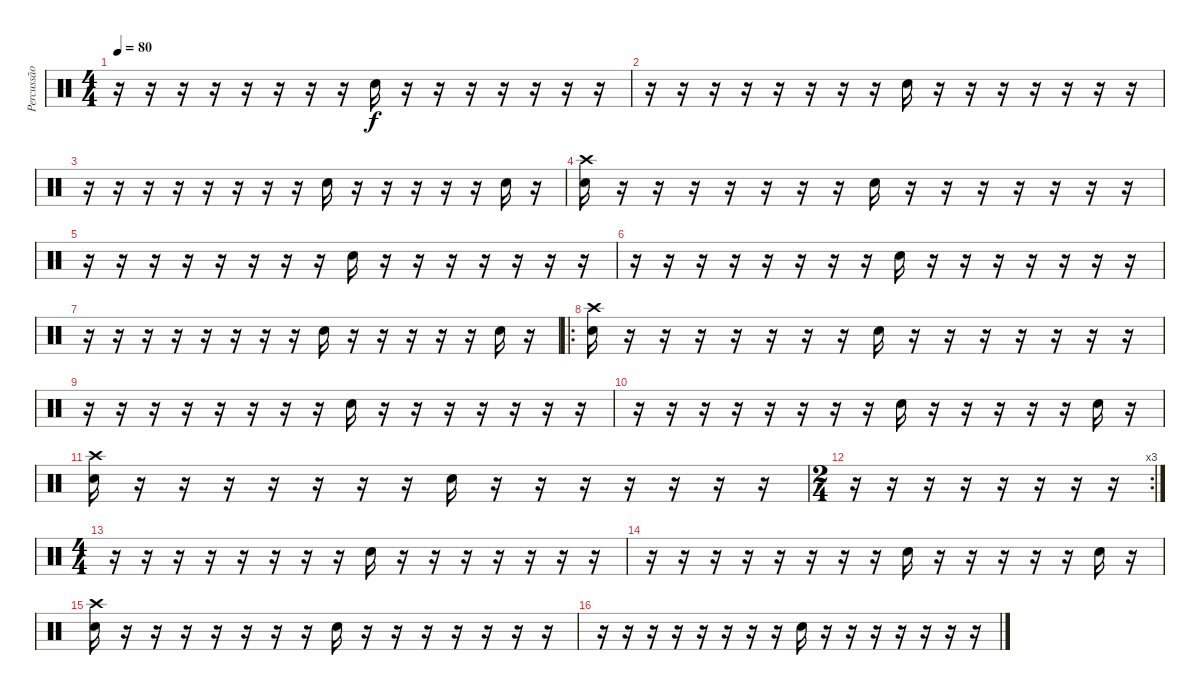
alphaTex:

\track ("Percussão" "Percussão") {instrument percussion}
\staff {score}
\articulation defaults
\ts (4 4)
\tempo 80
\clef neutral
\ks c
r.16{dy f} r.16 r.16 r.16 r.16 r.16 r.16 r.16 "Electric Snare (hit)".16 r.16 r.16 r.16 r.16 r.16 r.16 r.16 |
r.16 r.16 r.16 r.16 r.16 r.16 r.16 r.16 "Electric Snare (hit)".16 r.16 r.16 r.16 r.16 r.16 r.16 r.16 |
r.16 r.16 r.16 r.16 r.16 r.16 r.16 r.16 "Electric Snare (hit)".16 r.16 r.16 r.16 r.16 r.16 "Electric Snare (hit)".16 r.16 |
("Crash high (hit)" "Electric Snare (hit)").16 r.16 r.16 r.16 r.16 r.16 r.16 r.16 "Electric Snare (hit)".16 r.16 r.16 r.16 r.16 r.16 r.16 r.16 |
r.16 r.16 r.16 r.16 r.16 r.16 r.16 r.16 "Electric Snare (hit)".16 r.16 r.16 r.16 r.16 r.16 r.16 r.16 |
r.16 r.16 r.16 r.16 r.16 r.16 r.16 r.16 "Electric Snare (hit)".16 r.16 r.16 r.16 r.16 r.16 r.16 r.16 |
r.16 r.16 r.16 r.16 r.16 r.16 r.16 r.16 "Electric Snare (hit)".16 r.16 r.16 r.16 r.16 r.16 "Electric Snare (hit)".16 r.16 |
\ro
("Crash high (hit)" "Electric Snare (hit)").16 r.16 r.16 r.16 r.16 r.16 r.16 r.16 "Electric Snare (hit)".16 r.16 r.16 r.16 r.16 r.16 r.16 r.16 |
r.16 r.16 r.16 r.16 r.16 r.16 r.16 r.16 "Electric Snare (hit)".16 r.16 r.16 r.16 r.16 r.16 r.16 r.16 |
r.16 r.16 r.16 r.16 r.16 r.16 r.16 r.16 "Electric Snare (hit)".16 r.16 r.16 r.16 r.16 r.16 "Electric Snare (hit)".16 r.16 |
("Crash high (hit)" "Electric Snare (hit)").16 r.16 r.16 r.16 r.16 r.16 r.16 r.16 "Electric Snare (hit)".16 r.16 r.16 r.16 r.16 r.16 r.16 r.16 |
\rc 3
\ts (2 4)
r.16 r.16 r.16 r.16 r.16 r.16 r.16 r.16 |
\ts (4 4)
r.16 r.16 r.16 r.16 r.16 r.16 r.16 r.16 "Electric Snare (hit)".16 r.16 r.16 r.16 r.16 r.16 r.16 r.16 |
r.16 r.16 r.16 r.16 r.16 r.16 r.16 r.16 "Electric Snare (hit)".16 r.16 r.16 r.16 r.16 r.16 "Electric Snare (hit)".16 r.16 |
("Crash high (hit)" "Electric Snare (hit)").16 r.16 r.16 r.16 r.16 r.16 r.16 r.16 "Electric Snare (hit)".16 r.16 r.16 r.16 r.16 r.16 r.16 r.16 |
r.16 r.16 r.16 r.16 r.16 r.16 r.16 r.16 "Electric Snare (hit)".16 r.16 r.16 r.16 r.16 r.16 r.16 r.16
